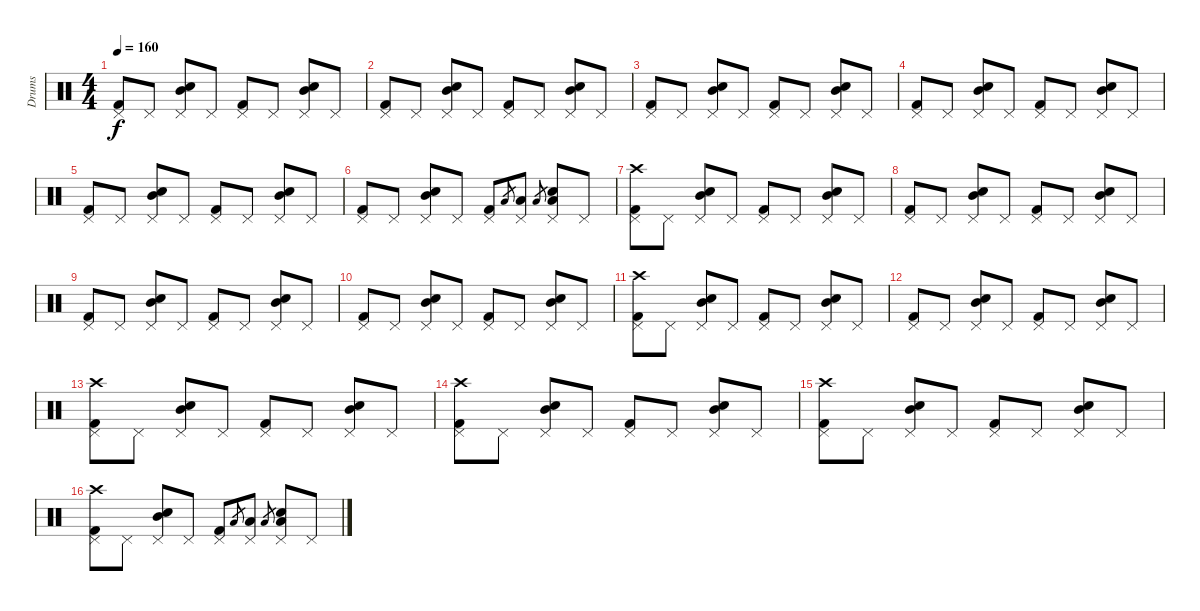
\track ("Drums" "Drums") {instrument percussion}
\staff {score}
\articulation defaults
\ts (4 4)
\tempo 160
\clef neutral
\ks c
("Kick (hit) 2" "Pedal Hi-Hat (hit)").8{dy f} "Pedal Hi-Hat (hit)".8 ("Snare (hit) 2" "Pedal Hi-Hat (hit)" "Mid Tom (hit)").8 "Pedal Hi-Hat (hit)".8 ("Kick (hit) 2" "Pedal Hi-Hat (hit)").8 "Pedal Hi-Hat (hit)".8 ("Snare (hit) 2" "Pedal Hi-Hat (hit)" "Mid Tom (hit)").8 "Pedal Hi-Hat (hit)".8 |
("Kick (hit) 2" "Pedal Hi-Hat (hit)").8 "Pedal Hi-Hat (hit)".8 ("Snare (hit) 2" "Pedal Hi-Hat (hit)" "Mid Tom (hit)").8 "Pedal Hi-Hat (hit)".8 ("Kick (hit) 2" "Pedal Hi-Hat (hit)").8 "Pedal Hi-Hat (hit)".8 ("Snare (hit) 2" "Pedal Hi-Hat (hit)" "Mid Tom (hit)").8 "Pedal Hi-Hat (hit)".8 |
("Kick (hit) 2" "Pedal Hi-Hat (hit)").8 "Pedal Hi-Hat (hit)".8 ("Snare (hit) 2" "Pedal Hi-Hat (hit)" "Mid Tom (hit)").8 "Pedal Hi-Hat (hit)".8 ("Kick (hit) 2" "Pedal Hi-Hat (hit)").8 "Pedal Hi-Hat (hit)".8 ("Snare (hit) 2" "Pedal Hi-Hat (hit)" "Mid Tom (hit)").8 "Pedal Hi-Hat (hit)".8 |
("Kick (hit) 2" "Pedal Hi-Hat (hit)").8 "Pedal Hi-Hat (hit)".8 ("Snare (hit) 2" "Pedal Hi-Hat (hit)" "Mid Tom (hit)").8 "Pedal Hi-Hat (hit)".8 ("Kick (hit) 2" "Pedal Hi-Hat (hit)").8 "Pedal Hi-Hat (hit)".8 ("Snare (hit) 2" "Pedal Hi-Hat (hit)" "Mid Tom (hit)").8 "Pedal Hi-Hat (hit)".8 |
("Kick (hit) 2" "Pedal Hi-Hat (hit)").8 "Pedal Hi-Hat (hit)".8 ("Snare (hit) 2" "Pedal Hi-Hat (hit)" "Mid Tom (hit)").8 "Pedal Hi-Hat (hit)".8 ("Kick (hit) 2" "Pedal Hi-Hat (hit)").8 "Pedal Hi-Hat (hit)".8 ("Snare (hit) 2" "Pedal Hi-Hat (hit)" "Mid Tom (hit)").8 "Pedal Hi-Hat (hit)".8 |
("Kick (hit) 2" "Pedal Hi-Hat (hit)").8 "Pedal Hi-Hat (hit)".8 ("Snare (hit) 2" "Pedal Hi-Hat (hit)" "Mid Tom (hit)").8 "Pedal Hi-Hat (hit)".8 ("Kick (hit) 2" "Pedal Hi-Hat (hit)").8 "Low Tom (hit)".8{gr} ("Pedal Hi-Hat (hit)" "Low Tom (hit)").8 "Low Tom (hit)".8{gr} ("Snare (hit) 2" "Pedal Hi-Hat (hit)" "Low Tom (hit)").8 "Pedal Hi-Hat (hit)".8 |
("Kick (hit) 2" "Pedal Hi-Hat (hit)" "Crash high (hit)").8 "Pedal Hi-Hat (hit)".8 ("Snare (hit) 2" "Pedal Hi-Hat (hit)" "Mid Tom (hit)").8 "Pedal Hi-Hat (hit)".8 ("Kick (hit) 2" "Pedal Hi-Hat (hit)").8 "Pedal Hi-Hat (hit)".8 ("Snare (hit) 2" "Pedal Hi-Hat (hit)" "Mid Tom (hit)").8 "Pedal Hi-Hat (hit)".8 |
("Kick (hit) 2" "Pedal Hi-Hat (hit)").8 "Pedal Hi-Hat (hit)".8 ("Snare (hit) 2" "Pedal Hi-Hat (hit)" "Mid Tom (hit)").8 "Pedal Hi-Hat (hit)".8 ("Kick (hit) 2" "Pedal Hi-Hat (hit)").8 "Pedal Hi-Hat (hit)".8 ("Snare (hit) 2" "Pedal Hi-Hat (hit)" "Mid Tom (hit)").8 "Pedal Hi-Hat (hit)".8 |
("Kick (hit) 2" "Pedal Hi-Hat (hit)").8 "Pedal Hi-Hat (hit)".8 ("Snare (hit) 2" "Pedal Hi-Hat (hit)" "Mid Tom (hit)").8 "Pedal Hi-Hat (hit)".8 ("Kick (hit) 2" "Pedal Hi-Hat (hit)").8 "Pedal Hi-Hat (hit)".8 ("Snare (hit) 2" "Pedal Hi-Hat (hit)" "Mid Tom (hit)").8 "Pedal Hi-Hat (hit)".8 |
("Kick (hit) 2" "Pedal Hi-Hat (hit)").8 "Pedal Hi-Hat (hit)".8 ("Snare (hit) 2" "Pedal Hi-Hat (hit)" "Mid Tom (hit)").8 "Pedal Hi-Hat (hit)".8 ("Kick (hit) 2" "Pedal Hi-Hat (hit)").8 "Pedal Hi-Hat (hit)".8 ("Snare (hit) 2" "Pedal Hi-Hat (hit)" "Mid Tom (hit)").8 "Pedal Hi-Hat (hit)".8 |
("Kick (hit) 2" "Pedal Hi-Hat (hit)" "Crash high (hit)").8 "Pedal Hi-Hat (hit)".8 ("Snare (hit) 2" "Pedal Hi-Hat (hit)" "Mid Tom (hit)").8 "Pedal Hi-Hat (hit)".8 ("Kick (hit) 2" "Pedal Hi-Hat (hit)").8 "Pedal Hi-Hat (hit)".8 ("Snare (hit) 2" "Pedal Hi-Hat (hit)" "Mid Tom (hit)").8 "Pedal Hi-Hat (hit)".8 |
("Kick (hit) 2" "Pedal Hi-Hat (hit)").8 "Pedal Hi-Hat (hit)".8 ("Snare (hit) 2" "Pedal Hi-Hat (hit)" "Mid Tom (hit)").8 "Pedal Hi-Hat (hit)".8 ("Kick (hit) 2" "Pedal Hi-Hat (hit)").8 "Pedal Hi-Hat (hit)".8 ("Snare (hit) 2" "Pedal Hi-Hat (hit)" "Mid Tom (hit)").8 "Pedal Hi-Hat (hit)".8 |
("Kick (hit) 2" "Pedal Hi-Hat (hit)" "Crash high (hit)").8 "Pedal Hi-Hat (hit)".8 ("Snare (hit) 2" "Pedal Hi-Hat (hit)" "Mid Tom (hit)").8 "Pedal Hi-Hat (hit)".8 ("Kick (hit) 2" "Pedal Hi-Hat (hit)").8 "Pedal Hi-Hat (hit)".8 ("Snare (hit) 2" "Pedal Hi-Hat (hit)" "Mid Tom (hit)").8 "Pedal Hi-Hat (hit)".8 |
("Kick (hit) 2" "Pedal Hi-Hat (hit)" "Crash high (hit)").8 "Pedal Hi-Hat (hit)".8 ("Snare (hit) 2" "Pedal Hi-Hat (hit)" "Mid Tom (hit)").8 "Pedal Hi-Hat (hit)".8 ("Kick (hit) 2" "Pedal Hi-Hat (hit)").8 "Pedal Hi-Hat (hit)".8 ("Snare (hit) 2" "Pedal Hi-Hat (hit)" "Mid Tom (hit)").8 "Pedal Hi-Hat (hit)".8 |
("Kick (hit) 2" "Pedal Hi-Hat (hit)" "Crash high (hit)").8 "Pedal Hi-Hat (hit)".8 ("Snare (hit) 2" "Pedal Hi-Hat (hit)" "Mid Tom (hit)").8 "Pedal Hi-Hat (hit)".8 ("Kick (hit) 2" "Pedal Hi-Hat (hit)").8 "Pedal Hi-Hat (hit)".8 ("Snare (hit) 2" "Pedal Hi-Hat (hit)" "Mid Tom (hit)").8 "Pedal Hi-Hat (hit)".8 |
("Kick (hit) 2" "Pedal Hi-Hat (hit)" "Crash high (hit)").8 "Pedal Hi-Hat (hit)".8 ("Snare (hit) 2" "Pedal Hi-Hat (hit)" "Mid Tom (hit)").8 "Pedal Hi-Hat (hit)".8 ("Kick (hit) 2" "Pedal Hi-Hat (hit)").8 "Low Tom (hit)".8{gr} ("Pedal Hi-Hat (hit)" "Low Tom (hit)").8 "Low Tom (hit)".8{gr} ("Snare (hit) 2" "Pedal Hi-Hat (hit)" "Low Tom (hit)").8 "Pedal Hi-Hat (hit)".8
